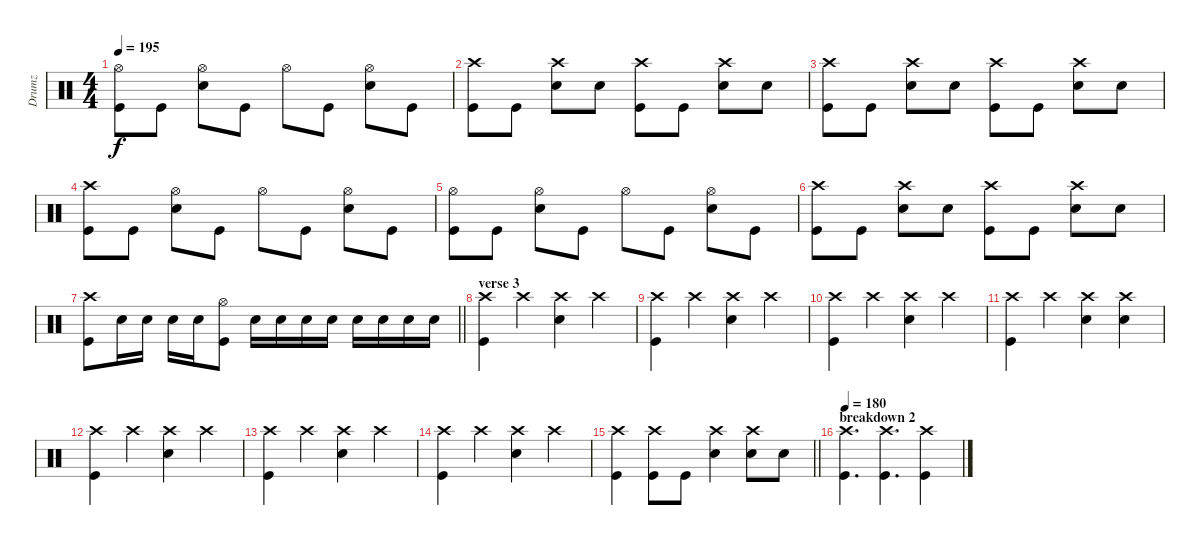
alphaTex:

\track ("Drumz" "Drumz") {instrument percussion}
\staff {score}
\articulation defaults
\ts (4 4)
\tempo 195
\clef neutral
\ks c
("Hi-Hat (open)" "Kick (hit)").8{dy f} "Kick (hit)".8 ("Hi-Hat (open)" "Electric Snare (hit)").8 "Kick (hit)".8 "Hi-Hat (open)".8 "Kick (hit)".8 ("Hi-Hat (open)" "Electric Snare (hit)").8 "Kick (hit)".8 |
("Crash high (hit)" "Kick (hit)").8 "Kick (hit)".8 ("Crash high (hit)" "Electric Snare (hit)").8 "Electric Snare (hit)".8 ("Crash high (hit)" "Kick (hit)").8 "Kick (hit)".8 ("Crash high (hit)" "Electric Snare (hit)").8 "Electric Snare (hit)".8 |
("Crash high (hit)" "Kick (hit)").8 "Kick (hit)".8 ("Crash high (hit)" "Electric Snare (hit)").8 "Electric Snare (hit)".8 ("Crash high (hit)" "Kick (hit)").8 "Kick (hit)".8 ("Crash high (hit)" "Electric Snare (hit)").8 "Electric Snare (hit)".8 |
("Crash high (hit)" "Kick (hit)").8 "Kick (hit)".8 ("Hi-Hat (open)" "Electric Snare (hit)").8 "Kick (hit)".8 "Hi-Hat (open)".8 "Kick (hit)".8 ("Hi-Hat (open)" "Electric Snare (hit)").8 "Kick (hit)".8 |
("Hi-Hat (open)" "Kick (hit)").8 "Kick (hit)".8 ("Hi-Hat (open)" "Electric Snare (hit)").8 "Kick (hit)".8 "Hi-Hat (open)".8 "Kick (hit)".8 ("Hi-Hat (open)" "Electric Snare (hit)").8 "Kick (hit)".8 |
("Crash high (hit)" "Kick (hit)").8 "Kick (hit)".8 ("Crash high (hit)" "Electric Snare (hit)").8 "Electric Snare (hit)".8 ("Crash high (hit)" "Kick (hit)").8 "Kick (hit)".8 ("Crash high (hit)" "Electric Snare (hit)").8 "Electric Snare (hit)".8 |
\barLineRight lightlight
("Crash high (hit)" "Kick (hit)").8 "Electric Snare (hit)".16 "Electric Snare (hit)".16 "Electric Snare (hit)".16 "Electric Snare (hit)".16 ("Hi-Hat (open)" "Kick (hit)").8 "Electric Snare (hit)".16 "Electric Snare (hit)".16 "Electric Snare (hit)".16 "Electric Snare (hit)".16 "Electric Snare (hit)".16 "Electric Snare (hit)".16 "Electric Snare (hit)".16 "Electric Snare (hit)".16 |
\section ("" "verse 3")
("Crash high (hit)" "Kick (hit)").4 "Crash high (hit)".4 ("Crash high (hit)" "Electric Snare (hit)").4 "Crash high (hit)".4 |
("Crash high (hit)" "Kick (hit)").4 "Crash high (hit)".4 ("Crash high (hit)" "Electric Snare (hit)").4 "Crash high (hit)".4 |
("Crash high (hit)" "Kick (hit)").4 "Crash high (hit)".4 ("Crash high (hit)" "Electric Snare (hit)").4 "Crash high (hit)".4 |
("Crash high (hit)" "Kick (hit)").4 "Crash high (hit)".4 ("Crash high (hit)" "Electric Snare (hit)").4 ("Crash high (hit)" "Electric Snare (hit)").4 |
("Crash high (hit)" "Kick (hit)").4 "Crash high (hit)".4 ("Crash high (hit)" "Electric Snare (hit)").4 "Crash high (hit)".4 |
("Crash high (hit)" "Kick (hit)").4 "Crash high (hit)".4 ("Crash high (hit)" "Electric Snare (hit)").4 "Crash high (hit)".4 |
("Crash high (hit)" "Kick (hit)").4 "Crash high (hit)".4 ("Crash high (hit)" "Electric Snare (hit)").4 "Crash high (hit)".4 |
\barLineRight lightlight
("Crash high (hit)" "Kick (hit)").4 ("Crash high (hit)" "Kick (hit)").8 "Kick (hit)".8 ("Crash high (hit)" "Electric Snare (hit)").4 ("Crash high (hit)" "Electric Snare (hit)").8 "Electric Snare (hit)".8 |
\section ("" "breakdown 2")
\tempo 180
("Crash high (hit)" "Kick (hit)").4{d} ("Crash high (hit)" "Kick (hit)").4{d} ("Crash high (hit)" "Kick (hit)").4
